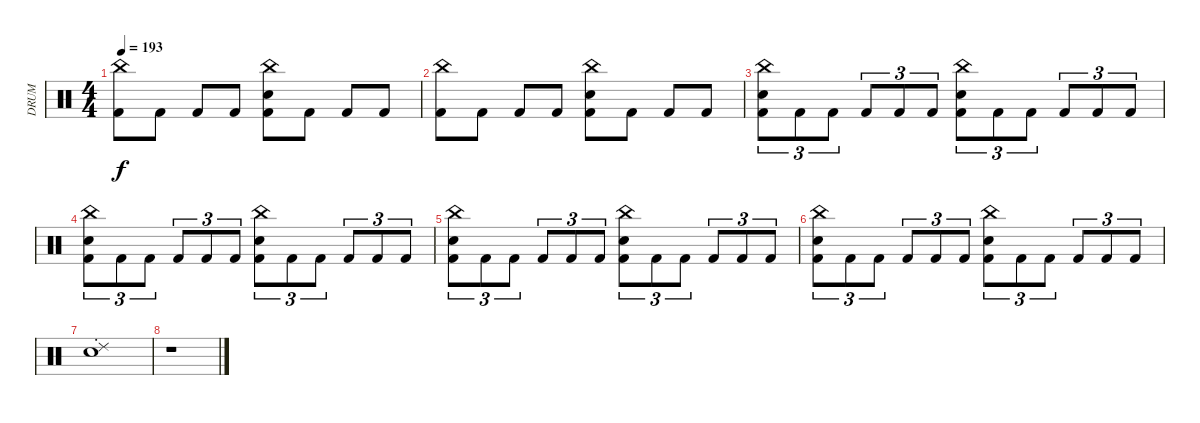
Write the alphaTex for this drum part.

\track ("DRUM" "DRUM") {instrument percussion bank 102}
\staff {score}
\articulation defaults
\ts (4 4)
\tempo 193
\clef neutral
\ks c
("China (hit)" "Kick (hit) 2").8{dy f} "Kick (hit) 2".8 "Kick (hit) 2".8 "Kick (hit) 2".8 ("China (hit)" "Electric Snare (hit)" "Kick (hit) 2").8 "Kick (hit) 2".8 "Kick (hit) 2".8 "Kick (hit) 2".8 |
("China (hit)" "Kick (hit) 2").8 "Kick (hit) 2".8 "Kick (hit) 2".8 "Kick (hit) 2".8 ("China (hit)" "Electric Snare (hit)" "Kick (hit) 2").8 "Kick (hit) 2".8 "Kick (hit) 2".8 "Kick (hit) 2".8 |
("China (hit)" "Electric Snare (hit)" "Kick (hit) 2").8{tu (3 2)} "Kick (hit) 2".8{tu (3 2)} "Kick (hit) 2".8{tu (3 2)} "Kick (hit) 2".8{tu (3 2)} "Kick (hit) 2".8{tu (3 2)} "Kick (hit) 2".8{tu (3 2)} ("China (hit)" "Electric Snare (hit)" "Kick (hit) 2").8{tu (3 2)} "Kick (hit) 2".8{tu (3 2)} "Kick (hit) 2".8{tu (3 2)} "Kick (hit) 2".8{tu (3 2)} "Kick (hit) 2".8{tu (3 2)} "Kick (hit) 2".8{tu (3 2)} |
("China (hit)" "Electric Snare (hit)" "Kick (hit) 2").8{tu (3 2)} "Kick (hit) 2".8{tu (3 2)} "Kick (hit) 2".8{tu (3 2)} "Kick (hit) 2".8{tu (3 2)} "Kick (hit) 2".8{tu (3 2)} "Kick (hit) 2".8{tu (3 2)} ("China (hit)" "Electric Snare (hit)" "Kick (hit) 2").8{tu (3 2)} "Kick (hit) 2".8{tu (3 2)} "Kick (hit) 2".8{tu (3 2)} "Kick (hit) 2".8{tu (3 2)} "Kick (hit) 2".8{tu (3 2)} "Kick (hit) 2".8{tu (3 2)} |
("China (hit)" "Electric Snare (hit)" "Kick (hit) 2").8{tu (3 2)} "Kick (hit) 2".8{tu (3 2)} "Kick (hit) 2".8{tu (3 2)} "Kick (hit) 2".8{tu (3 2)} "Kick (hit) 2".8{tu (3 2)} "Kick (hit) 2".8{tu (3 2)} ("China (hit)" "Electric Snare (hit)" "Kick (hit) 2").8{tu (3 2)} "Kick (hit) 2".8{tu (3 2)} "Kick (hit) 2".8{tu (3 2)} "Kick (hit) 2".8{tu (3 2)} "Kick (hit) 2".8{tu (3 2)} "Kick (hit) 2".8{tu (3 2)} |
("China (hit)" "Electric Snare (hit)" "Kick (hit) 2").8{tu (3 2)} "Kick (hit) 2".8{tu (3 2)} "Kick (hit) 2".8{tu (3 2)} "Kick (hit) 2".8{tu (3 2)} "Kick (hit) 2".8{tu (3 2)} "Kick (hit) 2".8{tu (3 2)} ("China (hit)" "Electric Snare (hit)" "Kick (hit) 2").8{tu (3 2)} "Kick (hit) 2".8{tu (3 2)} "Kick (hit) 2".8{tu (3 2)} "Kick (hit) 2".8{tu (3 2)} "Kick (hit) 2".8{tu (3 2)} "Kick (hit) 2".8{tu (3 2)} |
("Ride (choke) 2" "Electric Snare (hit)").1 |
r.1
